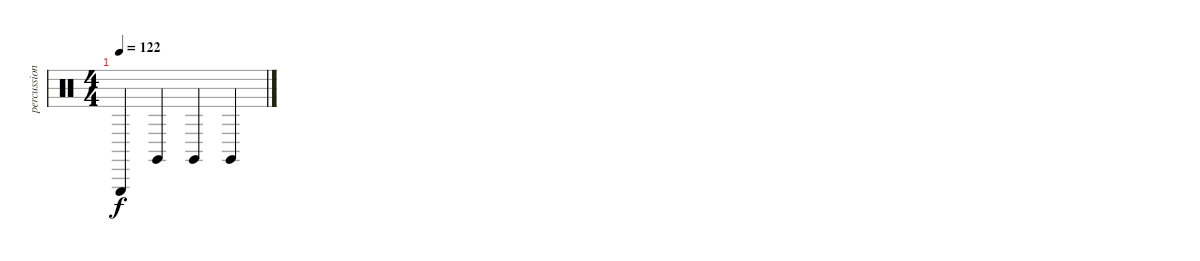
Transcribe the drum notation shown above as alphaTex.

\track ("percussion" "percussion") {instrument percussion}
\staff {score}
\articulation defaults
\ts (4 4)
\tempo 122
\clef neutral
\ks c "Triangle (hit)".4{dy f} "Claves (hit)".4 "Claves (hit)".4 "Claves (hit)".4
